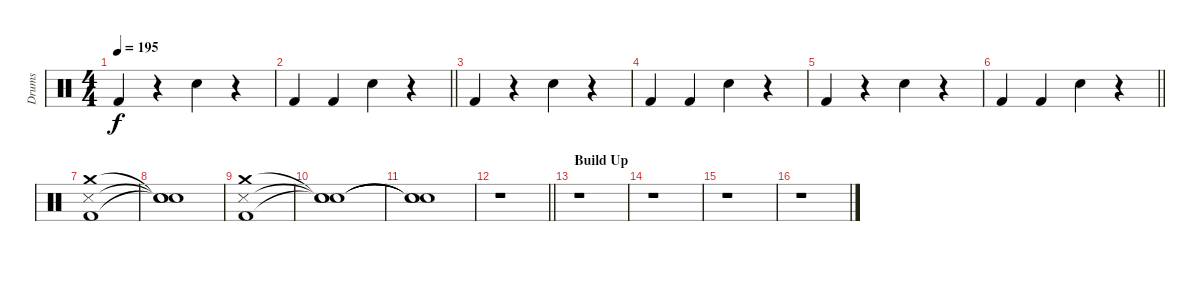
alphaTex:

\track ("Drums" "Drums") {instrument percussion}
\staff {score}
\articulation defaults
\ts (4 4)
\tempo 195
\clef neutral
\ks c "Kick (hit) 2".4{dy f}
r.4 "Hand Clap (hit)".4 r.4 |
\barLineRight lightlight "Kick (hit) 2".4 "Kick (hit) 2".4 "Hand Clap (hit)".4
r.4 |
"Kick (hit) 2".4 r.4 "Hand Clap (hit)".4 r.4 |
"Kick (hit) 2".4 "Kick (hit) 2".4 "Hand Clap (hit)".4 r.4 |
"Kick (hit) 2".4 r.4 "Hand Clap (hit)".4 r.4 |
\barLineRight lightlight "Kick (hit) 2".4 "Kick (hit) 2".4 "Hand Clap (hit)".4
r.4 |
("Kick (hit) 2" "Snare (side stick) 3" "Crash medium (hit)").1 |
("Snare (hit)"{t} "Snare (hit)"{t} "Snare (hit)"{t}).1 |
("Kick (hit) 2" "Snare (side stick) 3" "Crash medium (hit)").1 |
("Snare (hit)"{t} "Snare (hit)"{t} "Snare (hit)"{t}).1 |
("Snare (hit)"{t} "Snare (hit)"{t} "Snare (hit)"{t}).1 |
\barLineRight lightlight
r.1 |
\section ("" "Build Up")
r.1 |
r.1 |
r.1 |
r.1
